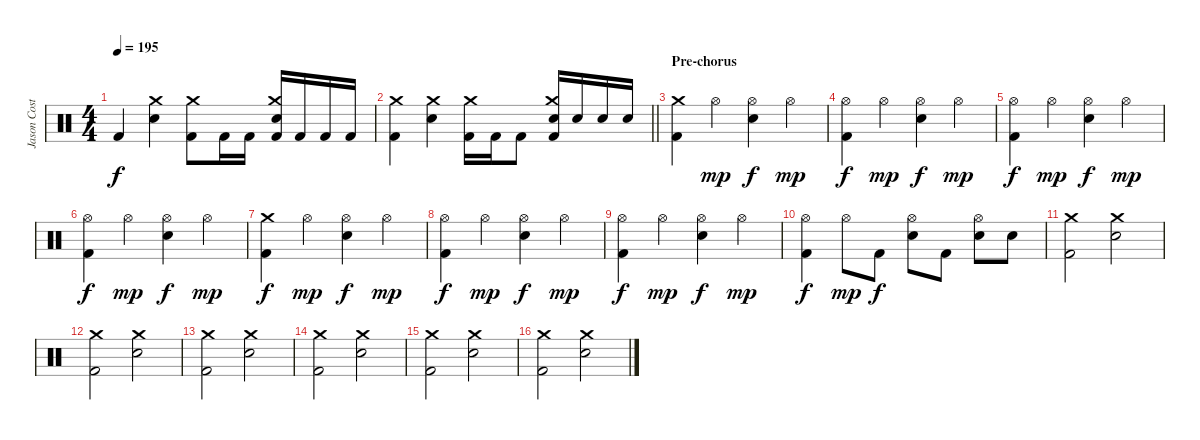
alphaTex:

\track ("Jason Costa" "Jason Cost") {instrument percussion}
\staff {score}
\articulation defaults
\ts (4 4)
\tempo 195
\clef neutral
\ks c "Kick (hit) 2".4{dy f}
("Crash medium (hit)" "Electric Snare (hit)").4 ("Crash medium (hit)" "Kick (hit) 2").8 "Kick (hit) 2".16 "Kick (hit) 2".16 ("Crash medium (hit)" "Electric Snare (hit)" "Kick (hit) 2").16 "Kick (hit) 2".16 "Kick (hit) 2".16 "Kick (hit) 2".16 |
\barLineRight lightlight
("Crash medium (hit)" "Kick (hit) 2").4 ("Crash medium (hit)" "Electric Snare (hit)").4 ("Crash medium (hit)" "Kick (hit) 2").16 "Kick (hit) 2".16 "Kick (hit) 2".8 ("Crash medium (hit)" "Electric Snare (hit)" "Kick (hit) 2").16 "Electric Snare (hit)".16 "Electric Snare (hit)".16 "Electric Snare (hit)".16 |
\section ("" "Pre-chorus")
("Crash medium (hit)" "Kick (hit) 2").4 "Hi-Hat (open)".4{dy mp} ("Hi-Hat (open)" "Electric Snare (hit)").4{dy f} "Hi-Hat (open)".4{dy mp} |
("Hi-Hat (open)" "Kick (hit) 2").4{dy f} "Hi-Hat (open)".4{dy mp} ("Hi-Hat (open)" "Electric Snare (hit)").4{dy f} "Hi-Hat (open)".4{dy mp} |
("Hi-Hat (open)" "Kick (hit) 2").4{dy f} "Hi-Hat (open)".4{dy mp} ("Hi-Hat (open)" "Electric Snare (hit)").4{dy f} "Hi-Hat (open)".4{dy mp} |
("Hi-Hat (open)" "Kick (hit) 2").4{dy f} "Hi-Hat (open)".4{dy mp} ("Hi-Hat (open)" "Electric Snare (hit)").4{dy f} "Hi-Hat (open)".4{dy mp} |
("Crash medium (hit)" "Kick (hit) 2").4{dy f} "Hi-Hat (open)".4{dy mp} ("Hi-Hat (open)" "Electric Snare (hit)").4{dy f} "Hi-Hat (open)".4{dy mp} |
("Hi-Hat (open)" "Kick (hit) 2").4{dy f} "Hi-Hat (open)".4{dy mp} ("Hi-Hat (open)" "Electric Snare (hit)").4{dy f} "Hi-Hat (open)".4{dy mp} |
("Hi-Hat (open)" "Kick (hit) 2").4{dy f} "Hi-Hat (open)".4{dy mp} ("Hi-Hat (open)" "Electric Snare (hit)").4{dy f} "Hi-Hat (open)".4{dy mp} |
("Hi-Hat (open)" "Kick (hit) 2").4{dy f} "Hi-Hat (open)".8{dy mp} "Kick (hit) 2".8{dy f} ("Hi-Hat (open)" "Electric Snare (hit)").8 "Kick (hit) 2".8 ("Hi-Hat (open)" "Electric Snare (hit)").8 "Electric Snare (hit)".8 |
("Crash medium (hit)" "Kick (hit) 2").2 ("Crash medium (hit)" "Electric Snare (hit)").2 |
("Crash medium (hit)" "Kick (hit) 2").2 ("Crash medium (hit)" "Electric Snare (hit)").2 |
("Crash medium (hit)" "Kick (hit) 2").2 ("Crash medium (hit)" "Electric Snare (hit)").2 |
("Crash medium (hit)" "Kick (hit) 2").2 ("Crash medium (hit)" "Electric Snare (hit)").2 |
("Crash medium (hit)" "Kick (hit) 2").2 ("Crash medium (hit)" "Electric Snare (hit)").2 |
("Crash medium (hit)" "Kick (hit) 2").2 ("Crash medium (hit)" "Electric Snare (hit)").2
